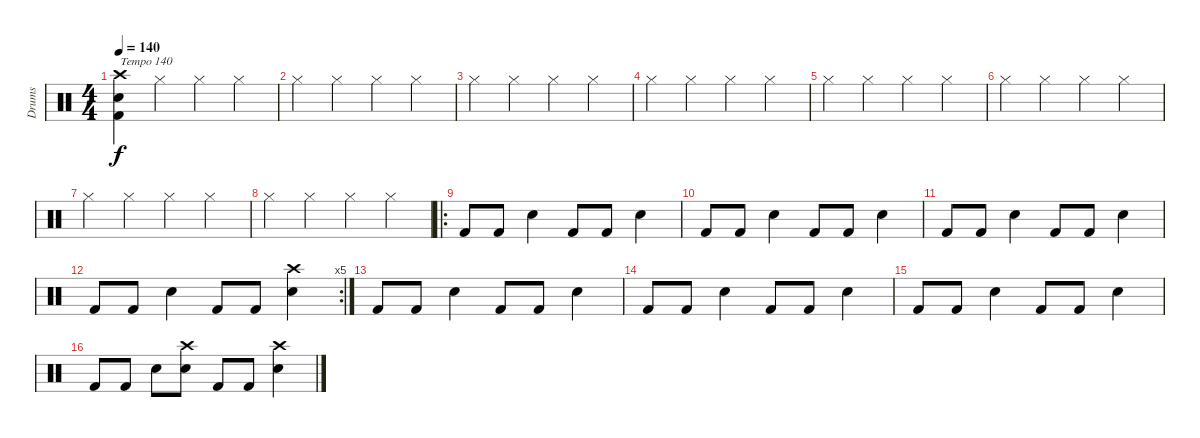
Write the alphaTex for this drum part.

\track ("Drums" "Drums") {instrument percussion}
\staff {score}
\articulation defaults
\ts (4 4)
\tempo 140
\clef neutral
\ks c
("Crash high (hit)" "Snare (hit) 2" "Kick (hit) 2").4{txt "Tempo 140" dy f} "Hi-Hat (closed)".4 "Hi-Hat (closed)".4 "Hi-Hat (closed)".4 |
"Hi-Hat (closed)".4 "Hi-Hat (closed)".4 "Hi-Hat (closed)".4 "Hi-Hat (closed)".4 |
"Hi-Hat (closed)".4 "Hi-Hat (closed)".4 "Hi-Hat (closed)".4 "Hi-Hat (closed)".4 |
"Hi-Hat (closed)".4 "Hi-Hat (closed)".4 "Hi-Hat (closed)".4 "Hi-Hat (closed)".4 |
"Hi-Hat (closed)".4 "Hi-Hat (closed)".4 "Hi-Hat (closed)".4 "Hi-Hat (closed)".4 |
"Hi-Hat (closed)".4 "Hi-Hat (closed)".4 "Hi-Hat (closed)".4 "Hi-Hat (closed)".4 |
"Hi-Hat (closed)".4 "Hi-Hat (closed)".4 "Hi-Hat (closed)".4 "Hi-Hat (closed)".4 |
"Hi-Hat (closed)".4 "Hi-Hat (closed)".4 "Hi-Hat (closed)".4 "Hi-Hat (closed)".4 |
\ro "Kick (hit) 2".8 "Kick (hit) 2".8 "Snare (hit) 2".4 "Kick (hit) 2".8 "Kick (hit) 2".8 "Snare (hit) 2".4
|
"Kick (hit) 2".8 "Kick (hit) 2".8 "Snare (hit) 2".4 "Kick (hit) 2".8 "Kick (hit) 2".8 "Snare (hit) 2".4 |
"Kick (hit) 2".8 "Kick (hit) 2".8 "Snare (hit) 2".4 "Kick (hit) 2".8 "Kick (hit) 2".8 "Snare (hit) 2".4 |
\rc 5 "Kick (hit) 2".8 "Kick (hit) 2".8 "Snare (hit) 2".4 "Kick (hit) 2".8 "Kick (hit) 2".8
("Snare (hit) 2" "Crash high (hit)").4 |
"Kick (hit) 2".8 "Kick (hit) 2".8 "Snare (hit) 2".4 "Kick (hit) 2".8 "Kick (hit) 2".8 "Snare (hit) 2".4 |
"Kick (hit) 2".8 "Kick (hit) 2".8 "Snare (hit) 2".4 "Kick (hit) 2".8 "Kick (hit) 2".8 "Snare (hit) 2".4 |
"Kick (hit) 2".8 "Kick (hit) 2".8 "Snare (hit) 2".4 "Kick (hit) 2".8 "Kick (hit) 2".8 "Snare (hit) 2".4 |
"Kick (hit) 2".8 "Kick (hit) 2".8 "Snare (hit) 2".8 ("Snare (hit) 2" "Crash high (hit)").8 "Kick (hit) 2".8 "Kick (hit) 2".8 ("Snare (hit) 2" "Crash high (hit)").4
